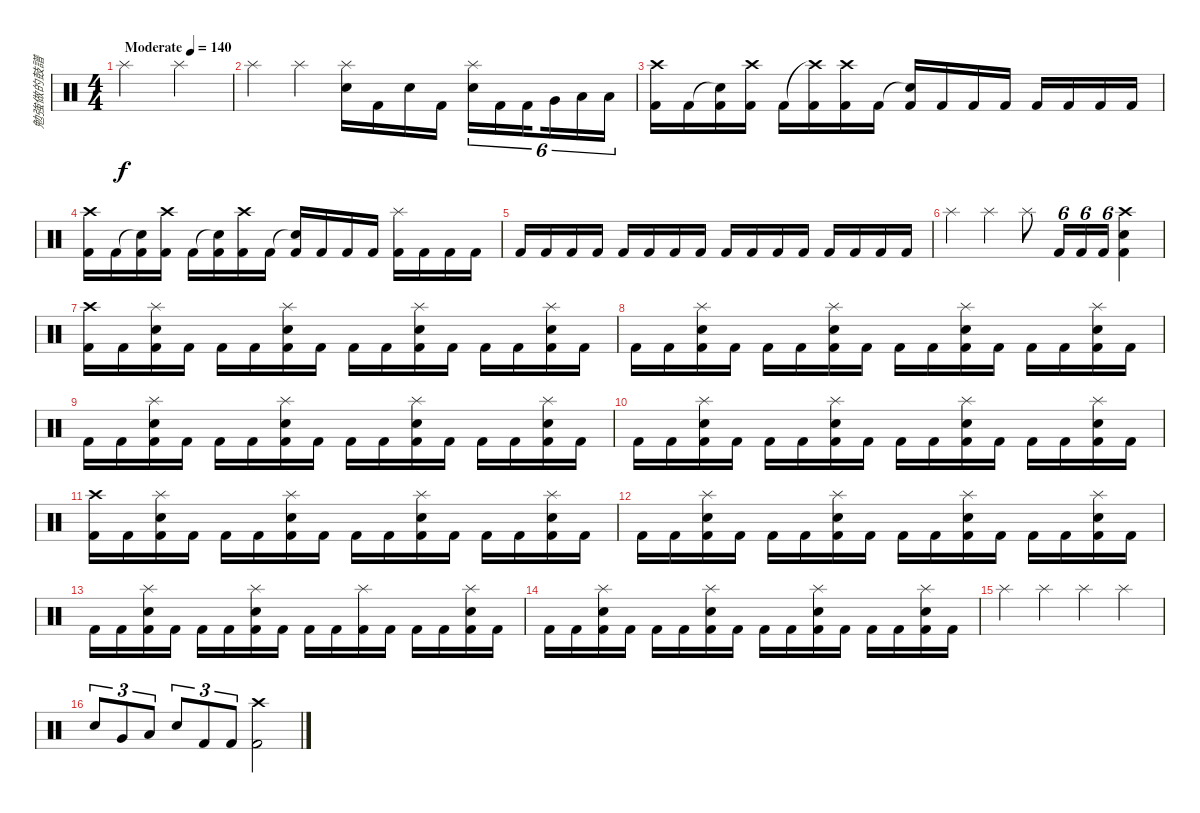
\track ("勉強做的鼓譜" "勉強做的鼓譜") {instrument percussion}
\staff {score}
\articulation defaults
\ts (4 4)
\tempo (140 "Moderate")
\clef neutral
\ks c "Splash (hit)".2{dy f} "Splash (hit)".2
|
"Splash (hit)".4 "Splash (hit)".4 ("Electric Snare (hit)" "Splash (hit)").16 "Kick (hit) 2".16 "Electric Snare (hit)".16 "Kick (hit) 2".16 ("Electric Snare (hit)" "Splash (hit)").16{tu (6 4)} "Kick (hit) 2".16{tu (6 4)} "Kick (hit) 2".16{tu (6 4) beam splitsecondary} "Very Low Tom (hit)".16{tu (6 4)} "Low Floor Tom (hit)".16{tu (6 4)} "Low Floor Tom (hit)".16{tu (6 4)} |
("Crash high (hit)" "Kick (hit) 2").16 "Kick (hit) 2".16 ("Snare (hit)"{t} "Kick (hit) 2").16 ("Crash high (hit)" "Kick (hit) 2").16 "Kick (hit) 2".16 ("Crash high (hit)"{t} "Kick (hit) 2").16 ("Crash high (hit)" "Kick (hit) 2").16 "Kick (hit) 2".16 ("Snare (hit)"{t} "Kick (hit) 2").16 "Kick (hit) 2".16 "Kick (hit) 2".16 "Kick (hit) 2".16 "Kick (hit) 2".16 "Kick (hit) 2".16 "Kick (hit) 2".16 "Kick (hit) 2".16 |
("Crash high (hit)" "Kick (hit) 2").16 "Kick (hit) 2".16 ("Snare (hit)"{t} "Kick (hit) 2").16 ("Crash high (hit)" "Kick (hit) 2").16 "Kick (hit) 2".16 ("Snare (hit)"{t} "Kick (hit) 2").16 ("Crash high (hit)" "Kick (hit) 2").16 "Kick (hit) 2".16 ("Snare (hit)"{t} "Kick (hit) 2").16 "Kick (hit) 2".16 "Kick (hit) 2".16 "Kick (hit) 2".16 ("Splash (hit)" "Kick (hit) 2").16 "Kick (hit) 2".16 "Kick (hit) 2".16 "Kick (hit) 2".16 |
"Kick (hit) 2".16 "Kick (hit) 2".16 "Kick (hit) 2".16 "Kick (hit) 2".16 "Kick (hit) 2".16 "Kick (hit) 2".16 "Kick (hit) 2".16 "Kick (hit) 2".16 "Kick (hit) 2".16 "Kick (hit) 2".16 "Kick (hit) 2".16 "Kick (hit) 2".16 "Kick (hit) 2".16 "Kick (hit) 2".16 "Kick (hit) 2".16 "Kick (hit) 2".16 |
"Splash (hit)".4 "Splash (hit)".4 "Splash (hit)".8 "Kick (hit) 2".16{tu (6 4)} "Kick (hit) 2".16{tu (6 4)} "Kick (hit) 2".16{tu (6 4)} ("Electric Snare (hit)" "Crash high (hit)" "Kick (hit) 2").4 |
("Crash high (hit)" "Kick (hit) 2").16 "Kick (hit) 2".16 ("Splash (hit)" "Electric Snare (hit)" "Kick (hit) 2").16 "Kick (hit) 2".16 "Kick (hit) 2".16 "Kick (hit) 2".16 ("Splash (hit)" "Electric Snare (hit)" "Kick (hit) 2").16 "Kick (hit) 2".16 "Kick (hit) 2".16 "Kick (hit) 2".16 ("Splash (hit)" "Electric Snare (hit)" "Kick (hit) 2").16 "Kick (hit) 2".16 "Kick (hit) 2".16 "Kick (hit) 2".16 ("Splash (hit)" "Electric Snare (hit)" "Kick (hit) 2").16 "Kick (hit) 2".16 |
"Kick (hit) 2".16 "Kick (hit) 2".16 ("Splash (hit)" "Electric Snare (hit)" "Kick (hit) 2").16 "Kick (hit) 2".16 "Kick (hit) 2".16 "Kick (hit) 2".16 ("Splash (hit)" "Electric Snare (hit)" "Kick (hit) 2").16 "Kick (hit) 2".16 "Kick (hit) 2".16 "Kick (hit) 2".16 ("Splash (hit)" "Electric Snare (hit)" "Kick (hit) 2").16 "Kick (hit) 2".16 "Kick (hit) 2".16 "Kick (hit) 2".16 ("Splash (hit)" "Electric Snare (hit)" "Kick (hit) 2").16 "Kick (hit) 2".16 |
"Kick (hit) 2".16 "Kick (hit) 2".16 ("Splash (hit)" "Electric Snare (hit)" "Kick (hit) 2").16 "Kick (hit) 2".16 "Kick (hit) 2".16 "Kick (hit) 2".16 ("Splash (hit)" "Electric Snare (hit)" "Kick (hit) 2").16 "Kick (hit) 2".16 "Kick (hit) 2".16 "Kick (hit) 2".16 ("Splash (hit)" "Electric Snare (hit)" "Kick (hit) 2").16 "Kick (hit) 2".16 "Kick (hit) 2".16 "Kick (hit) 2".16 ("Splash (hit)" "Electric Snare (hit)" "Kick (hit) 2").16 "Kick (hit) 2".16 |
"Kick (hit) 2".16 "Kick (hit) 2".16 ("Splash (hit)" "Electric Snare (hit)" "Kick (hit) 2").16 "Kick (hit) 2".16 "Kick (hit) 2".16 "Kick (hit) 2".16 ("Splash (hit)" "Electric Snare (hit)" "Kick (hit) 2").16 "Kick (hit) 2".16 "Kick (hit) 2".16 "Kick (hit) 2".16 ("Splash (hit)" "Electric Snare (hit)" "Kick (hit) 2").16 "Kick (hit) 2".16 "Kick (hit) 2".16 "Kick (hit) 2".16 ("Splash (hit)" "Electric Snare (hit)" "Kick (hit) 2").16 "Kick (hit) 2".16 |
("Crash high (hit)" "Kick (hit) 2").16 "Kick (hit) 2".16 ("Splash (hit)" "Electric Snare (hit)" "Kick (hit) 2").16 "Kick (hit) 2".16 "Kick (hit) 2".16 "Kick (hit) 2".16 ("Splash (hit)" "Electric Snare (hit)" "Kick (hit) 2").16 "Kick (hit) 2".16 "Kick (hit) 2".16 "Kick (hit) 2".16 ("Splash (hit)" "Electric Snare (hit)" "Kick (hit) 2").16 "Kick (hit) 2".16 "Kick (hit) 2".16 "Kick (hit) 2".16 ("Splash (hit)" "Electric Snare (hit)" "Kick (hit) 2").16 "Kick (hit) 2".16 |
"Kick (hit) 2".16 "Kick (hit) 2".16 ("Splash (hit)" "Electric Snare (hit)" "Kick (hit) 2").16 "Kick (hit) 2".16 "Kick (hit) 2".16 "Kick (hit) 2".16 ("Splash (hit)" "Electric Snare (hit)" "Kick (hit) 2").16 "Kick (hit) 2".16 "Kick (hit) 2".16 "Kick (hit) 2".16 ("Splash (hit)" "Electric Snare (hit)" "Kick (hit) 2").16 "Kick (hit) 2".16 "Kick (hit) 2".16 "Kick (hit) 2".16 ("Splash (hit)" "Electric Snare (hit)" "Kick (hit) 2").16 "Kick (hit) 2".16 |
"Kick (hit) 2".16 "Kick (hit) 2".16 ("Splash (hit)" "Electric Snare (hit)" "Kick (hit) 2").16 "Kick (hit) 2".16 "Kick (hit) 2".16 "Kick (hit) 2".16 ("Splash (hit)" "Electric Snare (hit)" "Kick (hit) 2").16 "Kick (hit) 2".16 "Kick (hit) 2".16 "Kick (hit) 2".16 ("Splash (hit)" "Kick (hit) 2").16 "Kick (hit) 2".16 "Kick (hit) 2".16 "Kick (hit) 2".16 ("Splash (hit)" "Electric Snare (hit)" "Kick (hit) 2").16 "Kick (hit) 2".16 |
"Kick (hit) 2".16 "Kick (hit) 2".16 ("Splash (hit)" "Electric Snare (hit)" "Kick (hit) 2").16 "Kick (hit) 2".16 "Kick (hit) 2".16 "Kick (hit) 2".16 ("Splash (hit)" "Electric Snare (hit)" "Kick (hit) 2").16 "Kick (hit) 2".16 "Kick (hit) 2".16 "Kick (hit) 2".16 ("Splash (hit)" "Electric Snare (hit)" "Kick (hit) 2").16 "Kick (hit) 2".16 "Kick (hit) 2".16 "Kick (hit) 2".16 ("Splash (hit)" "Electric Snare (hit)" "Kick (hit) 2").16 "Kick (hit) 2".16 |
"Splash (hit)".4 "Splash (hit)".4 "Splash (hit)".4 "Splash (hit)".4 |
"Electric Snare (hit)".8{tu (3 2)} "Very Low Tom (hit)".8{tu (3 2)} "Low Floor Tom (hit)".8{tu (3 2)} "Electric Snare (hit)".8{tu (3 2)} "Kick (hit) 2".8{tu (3 2)} "Kick (hit) 2".8{tu (3 2)} ("Crash high (hit)" "Kick (hit) 2").2
